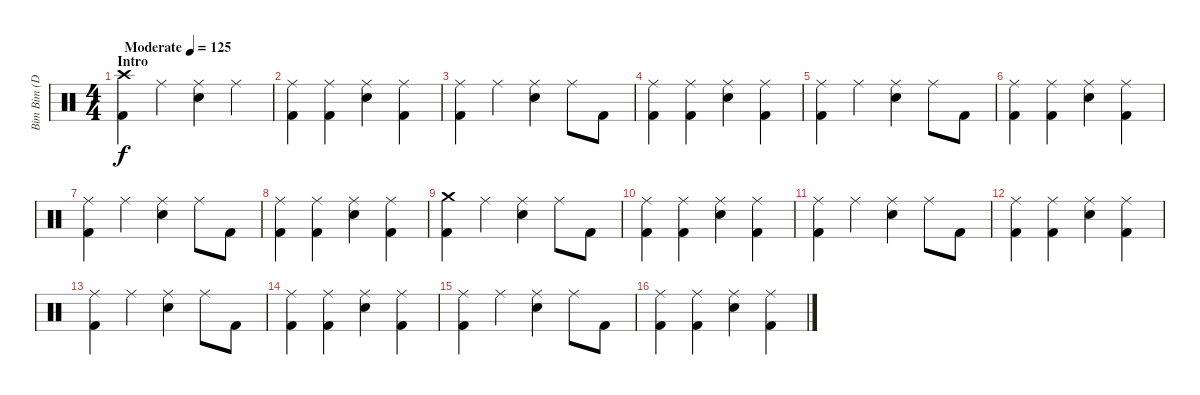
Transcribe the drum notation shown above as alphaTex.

\track ("Bim Bim (Drum)" "Bim Bim (D") {instrument percussion}
\staff {score}
\articulation defaults
\ts (4 4)
\section ("" "Intro")
\tempo (125 "Moderate")
\clef neutral
\ks c
("Crash high (hit)" "Kick (hit) 2").4{dy f} "Ride (middle)".4 ("Ride (middle)" "Electric Snare (hit)").4 "Ride (middle)".4 |
("Ride (middle)" "Kick (hit) 2").4 ("Ride (middle)" "Kick (hit) 2").4 ("Ride (middle)" "Electric Snare (hit)").4 ("Ride (middle)" "Kick (hit) 2").4 |
("Ride (middle)" "Kick (hit) 2").4 "Ride (middle)".4 ("Ride (middle)" "Electric Snare (hit)").4 "Ride (middle)".8 "Kick (hit) 2".8 |
("Ride (middle)" "Kick (hit) 2").4 ("Ride (middle)" "Kick (hit) 2").4 ("Ride (middle)" "Electric Snare (hit)").4 ("Ride (middle)" "Kick (hit) 2").4 |
("Ride (middle)" "Kick (hit) 2").4 "Ride (middle)".4 ("Ride (middle)" "Electric Snare (hit)").4 "Ride (middle)".8 "Kick (hit) 2".8 |
("Ride (middle)" "Kick (hit) 2").4 ("Ride (middle)" "Kick (hit) 2").4 ("Ride (middle)" "Electric Snare (hit)").4 ("Ride (middle)" "Kick (hit) 2").4 |
("Ride (middle)" "Kick (hit) 2").4 "Ride (middle)".4 ("Ride (middle)" "Electric Snare (hit)").4 "Ride (middle)".8 "Kick (hit) 2".8 |
("Ride (middle)" "Kick (hit) 2").4 ("Ride (middle)" "Kick (hit) 2").4 ("Ride (middle)" "Electric Snare (hit)").4 ("Ride (middle)" "Kick (hit) 2").4 |
("Crash medium (hit)" "Kick (hit) 2").4 "Ride (middle)".4 ("Ride (middle)" "Electric Snare (hit)").4 "Ride (middle)".8 "Kick (hit) 2".8 |
("Ride (middle)" "Kick (hit) 2").4 ("Ride (middle)" "Kick (hit) 2").4 ("Ride (middle)" "Electric Snare (hit)").4 ("Ride (middle)" "Kick (hit) 2").4 |
("Ride (middle)" "Kick (hit) 2").4 "Ride (middle)".4 ("Ride (middle)" "Electric Snare (hit)").4 "Ride (middle)".8 "Kick (hit) 2".8 |
("Ride (middle)" "Kick (hit) 2").4 ("Ride (middle)" "Kick (hit) 2").4 ("Ride (middle)" "Electric Snare (hit)").4 ("Ride (middle)" "Kick (hit) 2").4 |
("Ride (middle)" "Kick (hit) 2").4 "Ride (middle)".4 ("Ride (middle)" "Electric Snare (hit)").4 "Ride (middle)".8 "Kick (hit) 2".8 |
("Ride (middle)" "Kick (hit) 2").4 ("Ride (middle)" "Kick (hit) 2").4 ("Ride (middle)" "Electric Snare (hit)").4 ("Ride (middle)" "Kick (hit) 2").4 |
("Ride (middle)" "Kick (hit) 2").4 "Ride (middle)".4 ("Ride (middle)" "Electric Snare (hit)").4 "Ride (middle)".8 "Kick (hit) 2".8 |
("Ride (middle)" "Kick (hit) 2").4 ("Ride (middle)" "Kick (hit) 2").4 ("Ride (middle)" "Electric Snare (hit)").4 ("Ride (middle)" "Kick (hit) 2").4
